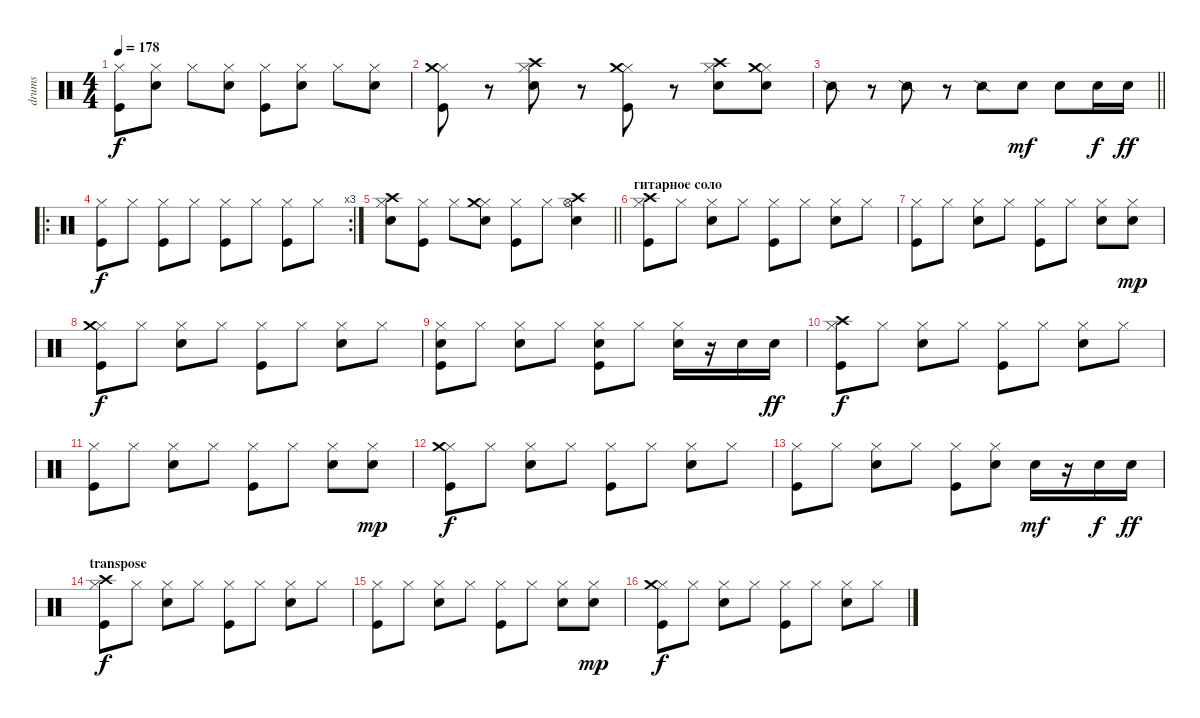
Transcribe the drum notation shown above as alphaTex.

\track ("drums" "drums") {instrument percussion}
\staff {score}
\articulation defaults
\ts (4 4)
\tempo 178
\clef neutral
\ks c
("Hi-Hat (closed)" "Kick (hit)").8{dy f} ("Hi-Hat (closed)" "Electric Snare (hit)").8 "Hi-Hat (closed)".8 ("Hi-Hat (closed)" "Electric Snare (hit)").8 ("Hi-Hat (closed)" "Kick (hit)").8 ("Hi-Hat (closed)" "Electric Snare (hit)").8 "Hi-Hat (closed)".8 ("Hi-Hat (closed)" "Electric Snare (hit)").8 |
("Hi-Hat (closed)" "Crash medium (hit)" "Kick (hit)").8 r.8 ("Hi-Hat (closed)" "Crash high (hit)" "Electric Snare (hit)").8 r.8 ("Hi-Hat (closed)" "Crash medium (hit)" "Kick (hit)").8 r.8 ("Hi-Hat (closed)" "Crash high (hit)" "Electric Snare (hit)").8 ("Hi-Hat (closed)" "Crash medium (hit)" "Electric Snare (hit)").8 |
\barLineRight lightlight "Snare (side stick) 2".8
r.8 "Snare (side stick) 2".8 r.8 "Snare (side stick) 2".8 "Electric Snare (hit)".8{dy mf} "Electric Snare (hit)".8 "Electric Snare (hit)".16{dy f} "Electric Snare (hit)".16{dy ff} |
\ro
\rc 3
("Hi-Hat (closed)" "Kick (hit)").8{dy f} "Hi-Hat (closed)".8 ("Hi-Hat (closed)" "Kick (hit)").8 "Hi-Hat (closed)".8 ("Hi-Hat (closed)" "Kick (hit)").8 "Hi-Hat (closed)".8 ("Hi-Hat (closed)" "Kick (hit)").8 "Hi-Hat (closed)".8 |
\barLineRight lightlight
("Hi-Hat (closed)" "Electric Snare (hit)" "Crash high (hit)").8 ("Hi-Hat (closed)" "Kick (hit)").8 "Hi-Hat (closed)".8 ("Hi-Hat (closed)" "Electric Snare (hit)" "Crash medium (hit)").8 ("Hi-Hat (closed)" "Kick (hit)").8 "Hi-Hat (closed)".8 ("Crash high (hit)" "Electric Snare (hit)" "Hi-Hat (open)").4 |
\section ("" "гитарное соло")
("Hi-Hat (closed)" "Crash high (hit)" "Kick (hit)").8 "Hi-Hat (closed)".8 ("Hi-Hat (closed)" "Electric Snare (hit)").8 "Hi-Hat (closed)".8 ("Hi-Hat (closed)" "Kick (hit)").8 "Hi-Hat (closed)".8 ("Hi-Hat (closed)" "Electric Snare (hit)").8 "Hi-Hat (closed)".8 |
("Hi-Hat (closed)" "Kick (hit)").8 "Hi-Hat (closed)".8 ("Hi-Hat (closed)" "Electric Snare (hit)").8 "Hi-Hat (closed)".8 ("Hi-Hat (closed)" "Kick (hit)").8 "Hi-Hat (closed)".8 ("Hi-Hat (closed)" "Electric Snare (hit)").8 ("Hi-Hat (closed)" "Electric Snare (hit)").8{dy mp} |
("Hi-Hat (closed)" "Crash medium (hit)" "Kick (hit)").8{dy f} "Hi-Hat (closed)".8 ("Hi-Hat (closed)" "Electric Snare (hit)").8 "Hi-Hat (closed)".8 ("Hi-Hat (closed)" "Kick (hit)").8 "Hi-Hat (closed)".8 ("Hi-Hat (closed)" "Electric Snare (hit)").8 "Hi-Hat (closed)".8 |
("Hi-Hat (closed)" "Electric Snare (hit)" "Kick (hit)").8 "Hi-Hat (closed)".8 ("Hi-Hat (closed)" "Electric Snare (hit)").8 "Hi-Hat (closed)".8 ("Hi-Hat (closed)" "Electric Snare (hit)" "Kick (hit)").8 "Hi-Hat (closed)".8 ("Hi-Hat (closed)" "Electric Snare (hit)").16 r.16 "Electric Snare (hit)".16 "Electric Snare (hit)".16{dy ff} |
("Hi-Hat (closed)" "Crash high (hit)" "Kick (hit)").8{dy f} "Hi-Hat (closed)".8 ("Hi-Hat (closed)" "Electric Snare (hit)").8 "Hi-Hat (closed)".8 ("Hi-Hat (closed)" "Kick (hit)").8 "Hi-Hat (closed)".8 ("Hi-Hat (closed)" "Electric Snare (hit)").8 "Hi-Hat (closed)".8 |
("Hi-Hat (closed)" "Kick (hit)").8 "Hi-Hat (closed)".8 ("Hi-Hat (closed)" "Electric Snare (hit)").8 "Hi-Hat (closed)".8 ("Hi-Hat (closed)" "Kick (hit)").8 "Hi-Hat (closed)".8 ("Hi-Hat (closed)" "Electric Snare (hit)").8 ("Hi-Hat (closed)" "Electric Snare (hit)").8{dy mp} |
("Hi-Hat (closed)" "Crash medium (hit)" "Kick (hit)").8{dy f} "Hi-Hat (closed)".8 ("Hi-Hat (closed)" "Electric Snare (hit)").8 "Hi-Hat (closed)".8 ("Hi-Hat (closed)" "Kick (hit)").8 "Hi-Hat (closed)".8 ("Hi-Hat (closed)" "Electric Snare (hit)").8 "Hi-Hat (closed)".8 |
("Hi-Hat (closed)" "Kick (hit)").8 "Hi-Hat (closed)".8 ("Hi-Hat (closed)" "Electric Snare (hit)").8 "Hi-Hat (closed)".8 ("Hi-Hat (closed)" "Kick (hit)").8 ("Hi-Hat (closed)" "Electric Snare (hit)").8 "Electric Snare (hit)".16{dy mf} r.16 "Electric Snare (hit)".16{dy f} "Electric Snare (hit)".16{dy ff} |
\section ("" "transpose")
("Hi-Hat (closed)" "Crash high (hit)" "Kick (hit)").8{dy f} "Hi-Hat (closed)".8 ("Hi-Hat (closed)" "Electric Snare (hit)").8 "Hi-Hat (closed)".8 ("Hi-Hat (closed)" "Kick (hit)").8 "Hi-Hat (closed)".8 ("Hi-Hat (closed)" "Electric Snare (hit)").8 "Hi-Hat (closed)".8 |
("Hi-Hat (closed)" "Kick (hit)").8 "Hi-Hat (closed)".8 ("Hi-Hat (closed)" "Electric Snare (hit)").8 "Hi-Hat (closed)".8 ("Hi-Hat (closed)" "Kick (hit)").8 "Hi-Hat (closed)".8 ("Hi-Hat (closed)" "Electric Snare (hit)").8 ("Hi-Hat (closed)" "Electric Snare (hit)").8{dy mp} |
("Hi-Hat (closed)" "Crash medium (hit)" "Kick (hit)").8{dy f} "Hi-Hat (closed)".8 ("Hi-Hat (closed)" "Electric Snare (hit)").8 "Hi-Hat (closed)".8 ("Hi-Hat (closed)" "Kick (hit)").8 "Hi-Hat (closed)".8 ("Hi-Hat (closed)" "Electric Snare (hit)").8 "Hi-Hat (closed)".8
